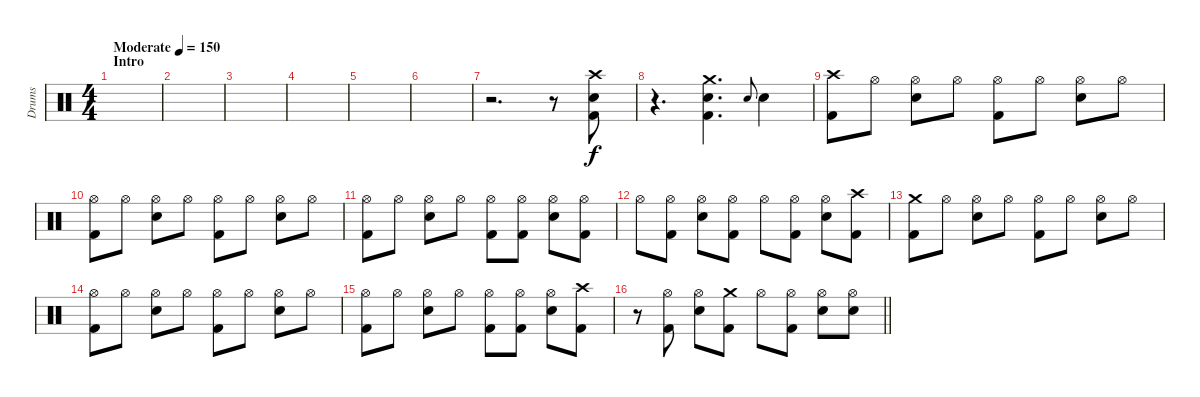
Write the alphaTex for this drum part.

\track ("Drums" "Drums") {instrument percussion}
\staff {score}
\articulation defaults
\ts (4 4)
\section ("" "Intro")
\tempo (150 "Moderate")
\clef neutral
\ks c
|
|
|
|
|
|
r.2{d} r.8 ("Crash high (hit)" "Electric Snare (hit)" "Kick (hit) 2").8 |
r.4{d} ("Crash medium (hit)" "Electric Snare (hit)" "Kick (hit) 2").4{d} "Electric Snare (hit)".8{gr onbeat} "Electric Snare (hit)".4 |
("Crash high (hit)" "Kick (hit) 2").8 "Hi-Hat (open)".8 ("Hi-Hat (open)" "Electric Snare (hit)").8 "Hi-Hat (open)".8 ("Hi-Hat (open)" "Kick (hit) 2").8 "Hi-Hat (open)".8 ("Hi-Hat (open)" "Electric Snare (hit)").8 "Hi-Hat (open)".8 |
("Hi-Hat (open)" "Kick (hit) 2").8 "Hi-Hat (open)".8 ("Hi-Hat (open)" "Electric Snare (hit)").8 "Hi-Hat (open)".8 ("Hi-Hat (open)" "Kick (hit) 2").8 "Hi-Hat (open)".8 ("Hi-Hat (open)" "Electric Snare (hit)").8 "Hi-Hat (open)".8 |
("Hi-Hat (open)" "Kick (hit) 2").8 "Hi-Hat (open)".8 ("Hi-Hat (open)" "Electric Snare (hit)").8 "Hi-Hat (open)".8 ("Hi-Hat (open)" "Kick (hit) 2").8 ("Hi-Hat (open)" "Kick (hit) 2").8 ("Hi-Hat (open)" "Electric Snare (hit)").8 ("Hi-Hat (open)" "Kick (hit) 2").8 |
"Hi-Hat (open)".8 ("Hi-Hat (open)" "Kick (hit) 2").8 ("Hi-Hat (open)" "Electric Snare (hit)").8 ("Hi-Hat (open)" "Kick (hit) 2").8 "Hi-Hat (open)".8 ("Hi-Hat (open)" "Kick (hit) 2").8 ("Hi-Hat (open)" "Electric Snare (hit)").8 ("Crash high (hit)" "Kick (hit) 2").8 |
("Crash medium (hit)" "Kick (hit) 2").8 "Hi-Hat (open)".8 ("Hi-Hat (open)" "Electric Snare (hit)").8 "Hi-Hat (open)".8 ("Hi-Hat (open)" "Kick (hit) 2").8 "Hi-Hat (open)".8 ("Hi-Hat (open)" "Electric Snare (hit)").8 "Hi-Hat (open)".8 |
("Hi-Hat (open)" "Kick (hit) 2").8 "Hi-Hat (open)".8 ("Hi-Hat (open)" "Electric Snare (hit)").8 "Hi-Hat (open)".8 ("Hi-Hat (open)" "Kick (hit) 2").8 "Hi-Hat (open)".8 ("Hi-Hat (open)" "Electric Snare (hit)").8 "Hi-Hat (open)".8 |
("Hi-Hat (open)" "Kick (hit) 2").8 "Hi-Hat (open)".8 ("Hi-Hat (open)" "Electric Snare (hit)").8 "Hi-Hat (open)".8 ("Hi-Hat (open)" "Kick (hit) 2").8 ("Hi-Hat (open)" "Kick (hit) 2").8 ("Hi-Hat (open)" "Electric Snare (hit)").8 ("Crash high (hit)" "Kick (hit) 2").8 |
\barLineRight lightlight
r.8 ("Hi-Hat (open)" "Kick (hit) 2").8 ("Hi-Hat (open)" "Electric Snare (hit)").8 ("Crash medium (hit)" "Kick (hit) 2").8 "Hi-Hat (open)".8 ("Hi-Hat (open)" "Kick (hit) 2").8 ("Hi-Hat (open)" "Electric Snare (hit)").8 ("Hi-Hat (open)" "Electric Snare (hit)").8
